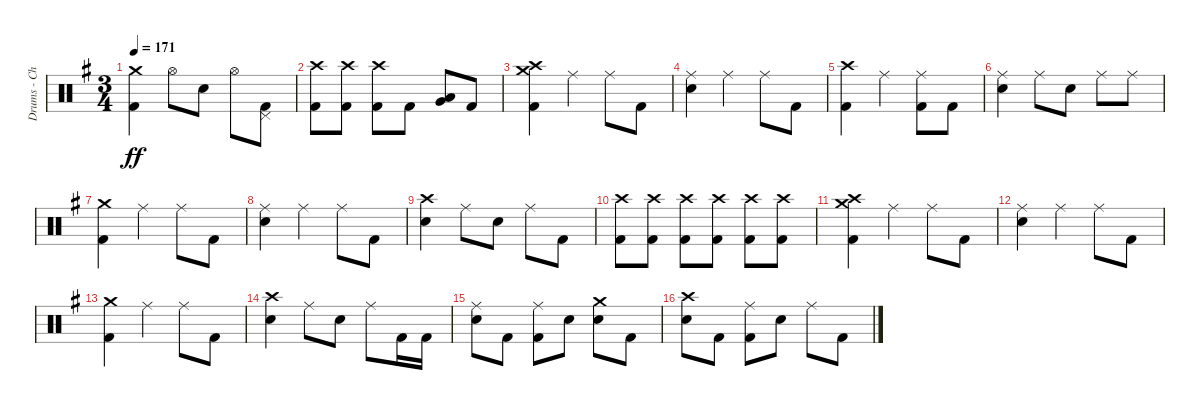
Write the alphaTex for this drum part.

\track ("Drums - Chris Hornbrook" "Drums - Ch") {instrument percussion}
\staff {score}
\articulation defaults
\ts (3 4)
\tempo 171
\clef neutral
\ks eminor
("Crash medium (hit)" "Kick (hit) 2").4{dy ff} "Hi-Hat (open)".8 "Electric Snare (hit)".8 "Hi-Hat (open)".8 ("Pedal Hi-Hat (hit)" "Kick (hit) 2").8 |
("Crash high (hit)" "Kick (hit) 2").8 ("Crash high (hit)" "Kick (hit) 2").8 ("Crash high (hit)" "Kick (hit) 2").8 "Kick (hit) 2".8 ("Low Tom (hit)" "Very Low Tom (hit)").8{bu 120} "Kick (hit) 2".8 |
("Crash medium (hit)" "Crash high (hit)" "Kick (hit) 2").4 "Ride (middle)".4 "Ride (middle)".8 "Kick (hit) 2".8 |
("Ride (middle)" "Electric Snare (hit)").4 "Ride (middle)".4 "Ride (middle)".8 "Kick (hit) 2".8 |
("Crash high (hit)" "Kick (hit) 2").4 "Ride (middle)".4 ("Ride (middle)" "Kick (hit) 2").8 "Kick (hit) 2".8 |
("Ride (middle)" "Electric Snare (hit)").4 "Ride (middle)".8 "Electric Snare (hit)".8 "Ride (middle)".8 "Ride (middle)".8 |
("Crash medium (hit)" "Kick (hit) 2").4 "Ride (middle)".4 "Ride (middle)".8 "Kick (hit) 2".8 |
("Ride (middle)" "Electric Snare (hit)").4 "Ride (middle)".4 "Ride (middle)".8 "Kick (hit) 2".8 |
("Crash high (hit)" "Electric Snare (hit)").4 "Ride (middle)".8 "Electric Snare (hit)".8 "Ride (middle)".8 "Kick (hit) 2".8 |
("Crash high (hit)" "Kick (hit) 2").8 ("Crash high (hit)" "Kick (hit) 2").8 ("Crash high (hit)" "Kick (hit) 2").8 ("Crash high (hit)" "Kick (hit) 2").8 ("Crash high (hit)" "Kick (hit) 2").8 ("Crash high (hit)" "Kick (hit) 2").8 |
("Crash medium (hit)" "Crash high (hit)" "Kick (hit) 2").4 "Ride (middle)".4 "Ride (middle)".8 "Kick (hit) 2".8 |
("Ride (middle)" "Electric Snare (hit)").4 "Ride (middle)".4 "Ride (middle)".8 "Kick (hit) 2".8 |
("Crash medium (hit)" "Kick (hit) 2").4 "Ride (middle)".4 "Ride (middle)".8 "Kick (hit) 2".8 |
("Crash high (hit)" "Electric Snare (hit)").4 "Ride (middle)".8 "Electric Snare (hit)".8 "Ride (middle)".8 "Kick (hit) 2".16 "Kick (hit) 2".16 |
("Ride (middle)" "Electric Snare (hit)").8 "Kick (hit) 2".8 ("Ride (middle)" "Kick (hit) 2").8 "Electric Snare (hit)".8 ("Crash medium (hit)" "Electric Snare (hit)").8 "Kick (hit) 2".8 |
("Crash high (hit)" "Electric Snare (hit)").8 "Kick (hit) 2".8 ("Ride (middle)" "Kick (hit) 2").8 "Electric Snare (hit)".8 "Ride (middle)".8 "Kick (hit) 2".8
